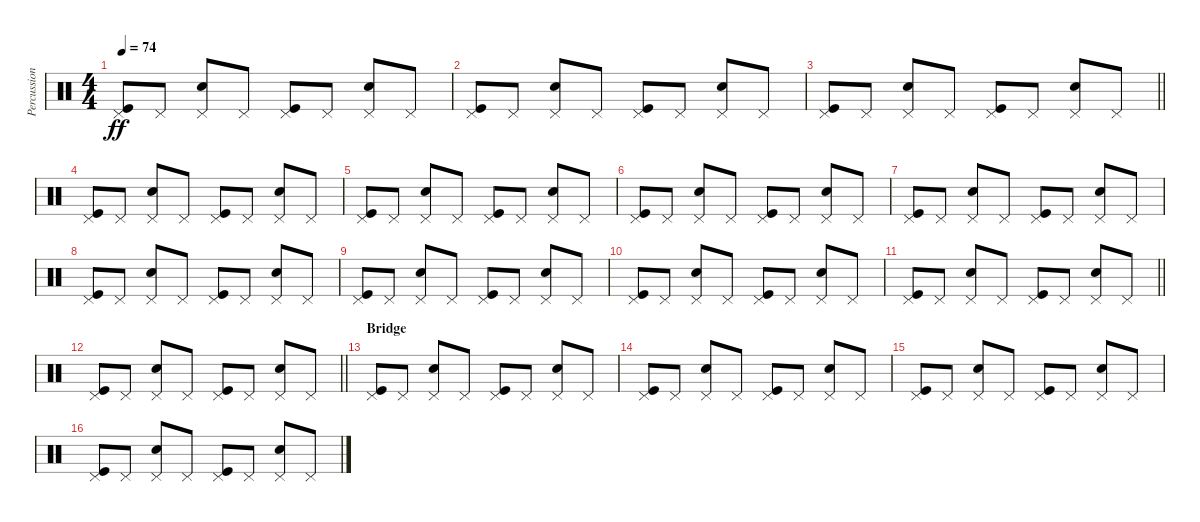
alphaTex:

\track ("Percussion" "Percussion") {instrument percussion}
\staff {score}
\articulation defaults
\ts (4 4)
\tempo 74
\clef neutral
\ks c
("Pedal Hi-Hat (hit)" "Kick (hit)").8{dy ff} "Pedal Hi-Hat (hit)".8 ("Pedal Hi-Hat (hit)" "Snare (hit) 2").8 "Pedal Hi-Hat (hit)".8 ("Pedal Hi-Hat (hit)" "Kick (hit)").8 "Pedal Hi-Hat (hit)".8 ("Pedal Hi-Hat (hit)" "Snare (hit) 2").8 "Pedal Hi-Hat (hit)".8 |
("Pedal Hi-Hat (hit)" "Kick (hit)").8 "Pedal Hi-Hat (hit)".8 ("Pedal Hi-Hat (hit)" "Snare (hit) 2").8 "Pedal Hi-Hat (hit)".8 ("Pedal Hi-Hat (hit)" "Kick (hit)").8 "Pedal Hi-Hat (hit)".8 ("Pedal Hi-Hat (hit)" "Snare (hit) 2").8 "Pedal Hi-Hat (hit)".8 |
\barLineRight lightlight
("Pedal Hi-Hat (hit)" "Kick (hit)").8 "Pedal Hi-Hat (hit)".8 ("Pedal Hi-Hat (hit)" "Snare (hit) 2").8 "Pedal Hi-Hat (hit)".8 ("Pedal Hi-Hat (hit)" "Kick (hit)").8 "Pedal Hi-Hat (hit)".8 ("Pedal Hi-Hat (hit)" "Snare (hit) 2").8 "Pedal Hi-Hat (hit)".8 |
("Pedal Hi-Hat (hit)" "Kick (hit)").8 "Pedal Hi-Hat (hit)".8 ("Pedal Hi-Hat (hit)" "Snare (hit) 2").8 "Pedal Hi-Hat (hit)".8 ("Pedal Hi-Hat (hit)" "Kick (hit)").8 "Pedal Hi-Hat (hit)".8 ("Pedal Hi-Hat (hit)" "Snare (hit) 2").8 "Pedal Hi-Hat (hit)".8 |
("Pedal Hi-Hat (hit)" "Kick (hit)").8 "Pedal Hi-Hat (hit)".8 ("Pedal Hi-Hat (hit)" "Snare (hit) 2").8 "Pedal Hi-Hat (hit)".8 ("Pedal Hi-Hat (hit)" "Kick (hit)").8 "Pedal Hi-Hat (hit)".8 ("Pedal Hi-Hat (hit)" "Snare (hit) 2").8 "Pedal Hi-Hat (hit)".8 |
("Pedal Hi-Hat (hit)" "Kick (hit)").8 "Pedal Hi-Hat (hit)".8 ("Pedal Hi-Hat (hit)" "Snare (hit) 2").8 "Pedal Hi-Hat (hit)".8 ("Pedal Hi-Hat (hit)" "Kick (hit)").8 "Pedal Hi-Hat (hit)".8 ("Pedal Hi-Hat (hit)" "Snare (hit) 2").8 "Pedal Hi-Hat (hit)".8 |
("Pedal Hi-Hat (hit)" "Kick (hit)").8 "Pedal Hi-Hat (hit)".8 ("Pedal Hi-Hat (hit)" "Snare (hit) 2").8 "Pedal Hi-Hat (hit)".8 ("Pedal Hi-Hat (hit)" "Kick (hit)").8 "Pedal Hi-Hat (hit)".8 ("Pedal Hi-Hat (hit)" "Snare (hit) 2").8 "Pedal Hi-Hat (hit)".8 |
("Pedal Hi-Hat (hit)" "Kick (hit)").8 "Pedal Hi-Hat (hit)".8 ("Pedal Hi-Hat (hit)" "Snare (hit) 2").8 "Pedal Hi-Hat (hit)".8 ("Pedal Hi-Hat (hit)" "Kick (hit)").8 "Pedal Hi-Hat (hit)".8 ("Pedal Hi-Hat (hit)" "Snare (hit) 2").8 "Pedal Hi-Hat (hit)".8 |
("Pedal Hi-Hat (hit)" "Kick (hit)").8 "Pedal Hi-Hat (hit)".8 ("Pedal Hi-Hat (hit)" "Snare (hit) 2").8 "Pedal Hi-Hat (hit)".8 ("Pedal Hi-Hat (hit)" "Kick (hit)").8 "Pedal Hi-Hat (hit)".8 ("Pedal Hi-Hat (hit)" "Snare (hit) 2").8 "Pedal Hi-Hat (hit)".8 |
("Pedal Hi-Hat (hit)" "Kick (hit)").8 "Pedal Hi-Hat (hit)".8 ("Pedal Hi-Hat (hit)" "Snare (hit) 2").8 "Pedal Hi-Hat (hit)".8 ("Pedal Hi-Hat (hit)" "Kick (hit)").8 "Pedal Hi-Hat (hit)".8 ("Pedal Hi-Hat (hit)" "Snare (hit) 2").8 "Pedal Hi-Hat (hit)".8 |
\barLineRight lightlight
("Pedal Hi-Hat (hit)" "Kick (hit)").8 "Pedal Hi-Hat (hit)".8 ("Pedal Hi-Hat (hit)" "Snare (hit) 2").8 "Pedal Hi-Hat (hit)".8 ("Pedal Hi-Hat (hit)" "Kick (hit)").8 "Pedal Hi-Hat (hit)".8 ("Pedal Hi-Hat (hit)" "Snare (hit) 2").8 "Pedal Hi-Hat (hit)".8 |
\barLineRight lightlight
("Pedal Hi-Hat (hit)" "Kick (hit)").8 "Pedal Hi-Hat (hit)".8 ("Pedal Hi-Hat (hit)" "Snare (hit) 2").8 "Pedal Hi-Hat (hit)".8 ("Pedal Hi-Hat (hit)" "Kick (hit)").8 "Pedal Hi-Hat (hit)".8 ("Pedal Hi-Hat (hit)" "Snare (hit) 2").8 "Pedal Hi-Hat (hit)".8 |
\section ("" "Bridge")
("Pedal Hi-Hat (hit)" "Kick (hit)").8 "Pedal Hi-Hat (hit)".8 ("Pedal Hi-Hat (hit)" "Snare (hit) 2").8 "Pedal Hi-Hat (hit)".8 ("Pedal Hi-Hat (hit)" "Kick (hit)").8 "Pedal Hi-Hat (hit)".8 ("Pedal Hi-Hat (hit)" "Snare (hit) 2").8 "Pedal Hi-Hat (hit)".8 |
("Pedal Hi-Hat (hit)" "Kick (hit)").8 "Pedal Hi-Hat (hit)".8 ("Pedal Hi-Hat (hit)" "Snare (hit) 2").8 "Pedal Hi-Hat (hit)".8 ("Pedal Hi-Hat (hit)" "Kick (hit)").8 "Pedal Hi-Hat (hit)".8 ("Pedal Hi-Hat (hit)" "Snare (hit) 2").8 "Pedal Hi-Hat (hit)".8 |
("Pedal Hi-Hat (hit)" "Kick (hit)").8 "Pedal Hi-Hat (hit)".8 ("Pedal Hi-Hat (hit)" "Snare (hit) 2").8 "Pedal Hi-Hat (hit)".8 ("Pedal Hi-Hat (hit)" "Kick (hit)").8 "Pedal Hi-Hat (hit)".8 ("Pedal Hi-Hat (hit)" "Snare (hit) 2").8 "Pedal Hi-Hat (hit)".8 |
("Pedal Hi-Hat (hit)" "Kick (hit)").8 "Pedal Hi-Hat (hit)".8 ("Pedal Hi-Hat (hit)" "Snare (hit) 2").8 "Pedal Hi-Hat (hit)".8 ("Pedal Hi-Hat (hit)" "Kick (hit)").8 "Pedal Hi-Hat (hit)".8 ("Pedal Hi-Hat (hit)" "Snare (hit) 2").8 "Pedal Hi-Hat (hit)".8
